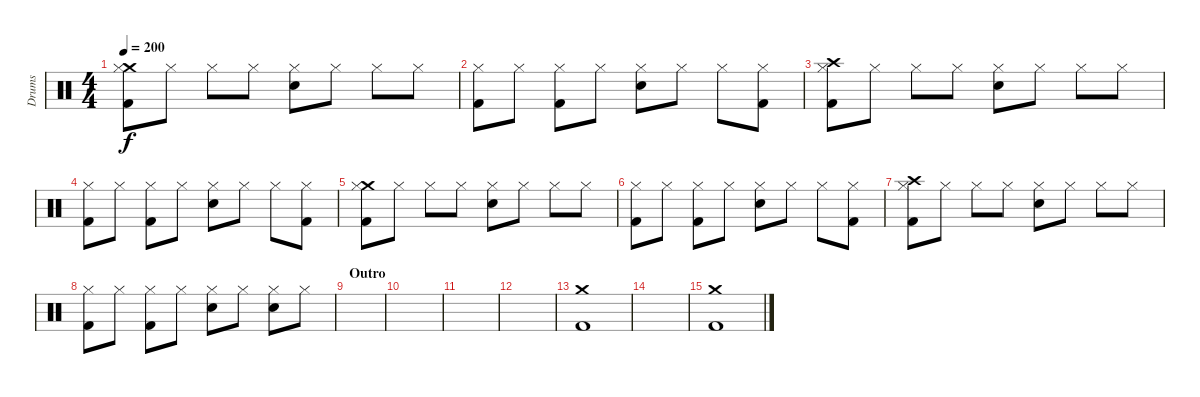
\track ("Drums" "Drums") {instrument percussion}
\staff {score}
\articulation defaults
\ts (4 4)
\tempo 200
\clef neutral
\ks c
("Crash medium (hit)" "Hi-Hat (closed)" "Kick (hit) 2").8{dy f} "Hi-Hat (closed)".8 "Hi-Hat (closed)".8 "Hi-Hat (closed)".8 ("Hi-Hat (closed)" "Electric Snare (hit)").8 "Hi-Hat (closed)".8 "Hi-Hat (closed)".8 "Hi-Hat (closed)".8 |
("Hi-Hat (closed)" "Kick (hit) 2").8 "Hi-Hat (closed)".8 ("Hi-Hat (closed)" "Kick (hit) 2").8 "Hi-Hat (closed)".8 ("Hi-Hat (closed)" "Electric Snare (hit)").8 "Hi-Hat (closed)".8 "Hi-Hat (closed)".8 ("Hi-Hat (closed)" "Kick (hit) 2").8 |
("Crash high (hit)" "Hi-Hat (closed)" "Kick (hit) 2").8 "Hi-Hat (closed)".8 "Hi-Hat (closed)".8 "Hi-Hat (closed)".8 ("Hi-Hat (closed)" "Electric Snare (hit)").8 "Hi-Hat (closed)".8 "Hi-Hat (closed)".8 "Hi-Hat (closed)".8 |
("Hi-Hat (closed)" "Kick (hit) 2").8 "Hi-Hat (closed)".8 ("Hi-Hat (closed)" "Kick (hit) 2").8 "Hi-Hat (closed)".8 ("Hi-Hat (closed)" "Electric Snare (hit)").8 "Hi-Hat (closed)".8 "Hi-Hat (closed)".8 ("Hi-Hat (closed)" "Kick (hit) 2").8 |
("Crash medium (hit)" "Hi-Hat (closed)" "Kick (hit) 2").8 "Hi-Hat (closed)".8 "Hi-Hat (closed)".8 "Hi-Hat (closed)".8 ("Hi-Hat (closed)" "Electric Snare (hit)").8 "Hi-Hat (closed)".8 "Hi-Hat (closed)".8 "Hi-Hat (closed)".8 |
("Hi-Hat (closed)" "Kick (hit) 2").8 "Hi-Hat (closed)".8 ("Hi-Hat (closed)" "Kick (hit) 2").8 "Hi-Hat (closed)".8 ("Hi-Hat (closed)" "Electric Snare (hit)").8 "Hi-Hat (closed)".8 "Hi-Hat (closed)".8 ("Hi-Hat (closed)" "Kick (hit) 2").8 |
("Crash high (hit)" "Hi-Hat (closed)" "Kick (hit) 2").8 "Hi-Hat (closed)".8 "Hi-Hat (closed)".8 "Hi-Hat (closed)".8 ("Hi-Hat (closed)" "Electric Snare (hit)").8 "Hi-Hat (closed)".8 "Hi-Hat (closed)".8 "Hi-Hat (closed)".8 |
("Hi-Hat (closed)" "Kick (hit) 2").8 "Hi-Hat (closed)".8 ("Hi-Hat (closed)" "Kick (hit) 2").8 "Hi-Hat (closed)".8 ("Hi-Hat (closed)" "Electric Snare (hit)").8 "Hi-Hat (closed)".8 ("Hi-Hat (closed)" "Electric Snare (hit)").8 "Hi-Hat (closed)".8 |
\section ("" "Outro")
|
|
|
|
("Crash medium (hit)" "Kick (hit) 2").1 |
|
("Crash medium (hit)" "Kick (hit) 2").1
